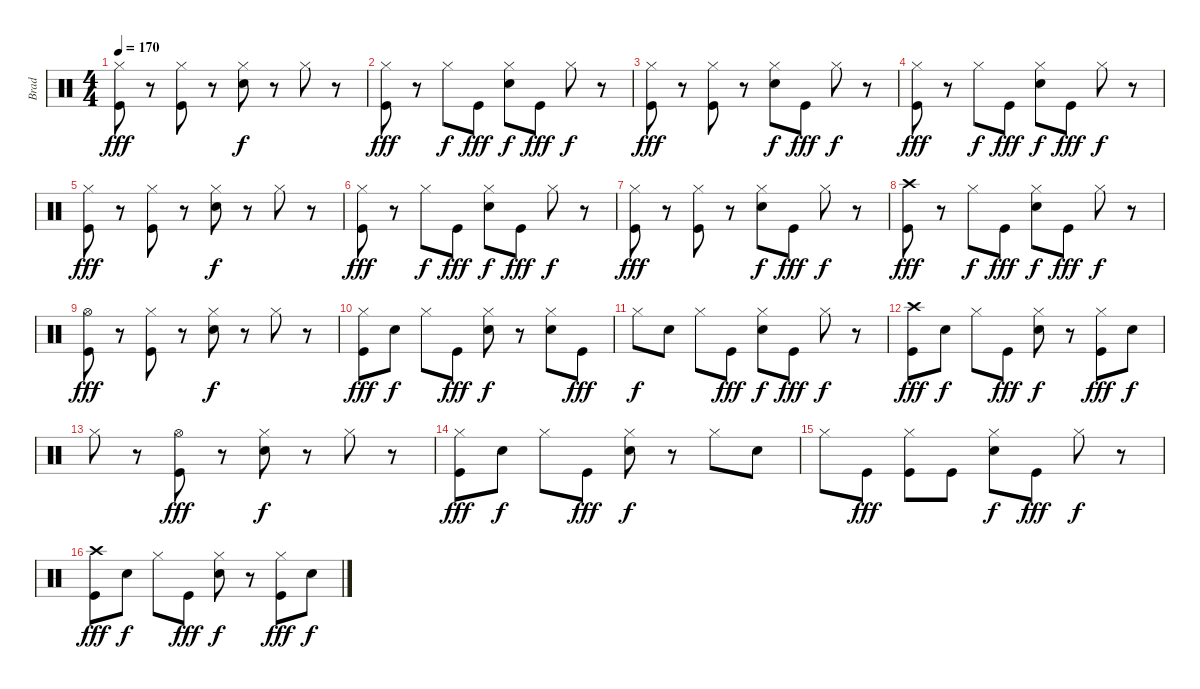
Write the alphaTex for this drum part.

\track ("Brad" "Brad") {instrument percussion}
\staff {score}
\articulation defaults
\ts (4 4)
\tempo 170
\clef neutral
\ks c
("Hi-Hat (closed)" "Kick (hit)").8{dy fff} r.8 ("Hi-Hat (closed)" "Kick (hit)").8 r.8 ("Hi-Hat (closed)" "Electric Snare (hit)").8{dy f} r.8 "Hi-Hat (closed)".8 r.8 |
("Hi-Hat (closed)" "Kick (hit)").8{dy fff} r.8 "Hi-Hat (closed)".8{dy f} "Kick (hit)".8{dy fff} ("Hi-Hat (closed)" "Electric Snare (hit)").8{dy f} "Kick (hit)".8{dy fff} "Hi-Hat (closed)".8{dy f} r.8 |
("Hi-Hat (closed)" "Kick (hit)").8{dy fff} r.8 ("Hi-Hat (closed)" "Kick (hit)").8 r.8 ("Hi-Hat (closed)" "Electric Snare (hit)").8{dy f} "Kick (hit)".8{dy fff} "Hi-Hat (closed)".8{dy f} r.8 |
("Hi-Hat (closed)" "Kick (hit)").8{dy fff} r.8 "Hi-Hat (closed)".8{dy f} "Kick (hit)".8{dy fff} ("Hi-Hat (closed)" "Electric Snare (hit)").8{dy f} "Kick (hit)".8{dy fff} "Hi-Hat (closed)".8{dy f} r.8 |
("Hi-Hat (closed)" "Kick (hit)").8{dy fff} r.8 ("Hi-Hat (closed)" "Kick (hit)").8 r.8 ("Hi-Hat (closed)" "Electric Snare (hit)").8{dy f} r.8 "Hi-Hat (closed)".8 r.8 |
("Hi-Hat (closed)" "Kick (hit)").8{dy fff} r.8 "Hi-Hat (closed)".8{dy f} "Kick (hit)".8{dy fff} ("Hi-Hat (closed)" "Electric Snare (hit)").8{dy f} "Kick (hit)".8{dy fff} "Hi-Hat (closed)".8{dy f} r.8 |
("Hi-Hat (closed)" "Kick (hit)").8{dy fff} r.8 ("Hi-Hat (closed)" "Kick (hit)").8 r.8 ("Hi-Hat (closed)" "Electric Snare (hit)").8{dy f} "Kick (hit)".8{dy fff} "Hi-Hat (closed)".8{dy f} r.8 |
("Crash high (hit)" "Kick (hit)").8{dy fff} r.8 "Hi-Hat (closed)".8{dy f} "Kick (hit)".8{dy fff} ("Hi-Hat (closed)" "Electric Snare (hit)").8{dy f} "Kick (hit)".8{dy fff} "Hi-Hat (closed)".8{dy f} r.8 |
("Hi-Hat (open)" "Kick (hit)").8{dy fff} r.8 ("Hi-Hat (closed)" "Kick (hit)").8 r.8 ("Hi-Hat (closed)" "Electric Snare (hit)").8{dy f} r.8 "Hi-Hat (closed)".8 r.8 |
("Hi-Hat (closed)" "Kick (hit)").8{dy fff} "Electric Snare (hit)".8{dy f} "Hi-Hat (closed)".8 "Kick (hit)".8{dy fff} ("Hi-Hat (closed)" "Electric Snare (hit)").8{dy f} r.8 ("Hi-Hat (closed)" "Electric Snare (hit)").8 "Kick (hit)".8{dy fff} |
"Hi-Hat (closed)".8{dy f} "Electric Snare (hit)".8 "Hi-Hat (closed)".8 "Kick (hit)".8{dy fff} ("Hi-Hat (closed)" "Electric Snare (hit)").8{dy f} "Kick (hit)".8{dy fff} "Hi-Hat (closed)".8{dy f} r.8 |
("Crash high (hit)" "Kick (hit)").8{dy fff} "Electric Snare (hit)".8{dy f} "Hi-Hat (closed)".8 "Kick (hit)".8{dy fff} ("Hi-Hat (closed)" "Electric Snare (hit)").8{dy f} r.8 ("Hi-Hat (closed)" "Kick (hit)").8{dy fff} "Electric Snare (hit)".8{dy f} |
"Hi-Hat (closed)".8 r.8 ("Hi-Hat (open)" "Kick (hit)").8{dy fff} r.8 ("Hi-Hat (closed)" "Electric Snare (hit)").8{dy f} r.8 "Hi-Hat (closed)".8 r.8 |
("Hi-Hat (closed)" "Kick (hit)").8{dy fff} "Electric Snare (hit)".8{dy f} "Hi-Hat (closed)".8 "Kick (hit)".8{dy fff} ("Hi-Hat (closed)" "Electric Snare (hit)").8{dy f} r.8 "Hi-Hat (closed)".8 "Electric Snare (hit)".8 |
"Hi-Hat (closed)".8 "Kick (hit)".8{dy fff} ("Hi-Hat (closed)" "Kick (hit)").8 "Kick (hit)".8 ("Hi-Hat (closed)" "Electric Snare (hit)").8{dy f} "Kick (hit)".8{dy fff} "Hi-Hat (closed)".8{dy f} r.8 |
("Crash high (hit)" "Kick (hit)").8{dy fff} "Electric Snare (hit)".8{dy f} "Hi-Hat (closed)".8 "Kick (hit)".8{dy fff} ("Hi-Hat (closed)" "Electric Snare (hit)").8{dy f} r.8 ("Hi-Hat (closed)" "Kick (hit)").8{dy fff} "Electric Snare (hit)".8{dy f}
